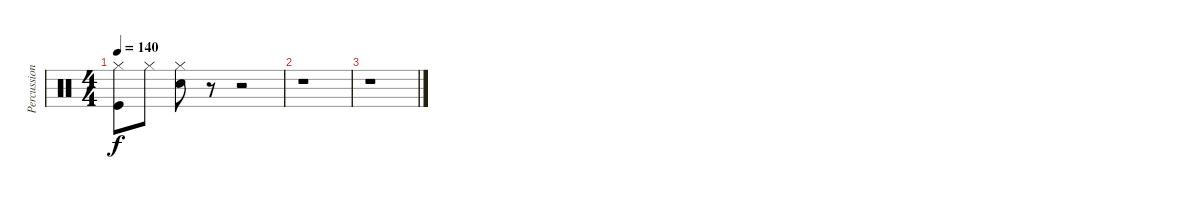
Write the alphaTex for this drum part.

\track ("Percussion" "Percussion") {instrument percussion}
\staff {score}
\articulation defaults
\ts (4 4)
\tempo 140
\clef neutral
\ks c
("Hi-Hat (closed)" "Kick (hit)").8{dy f} "Hi-Hat (closed)".8 ("Hi-Hat (closed)" "Snare (hit) 2").8 r.8 r.2 |
r.1 |
r.1
